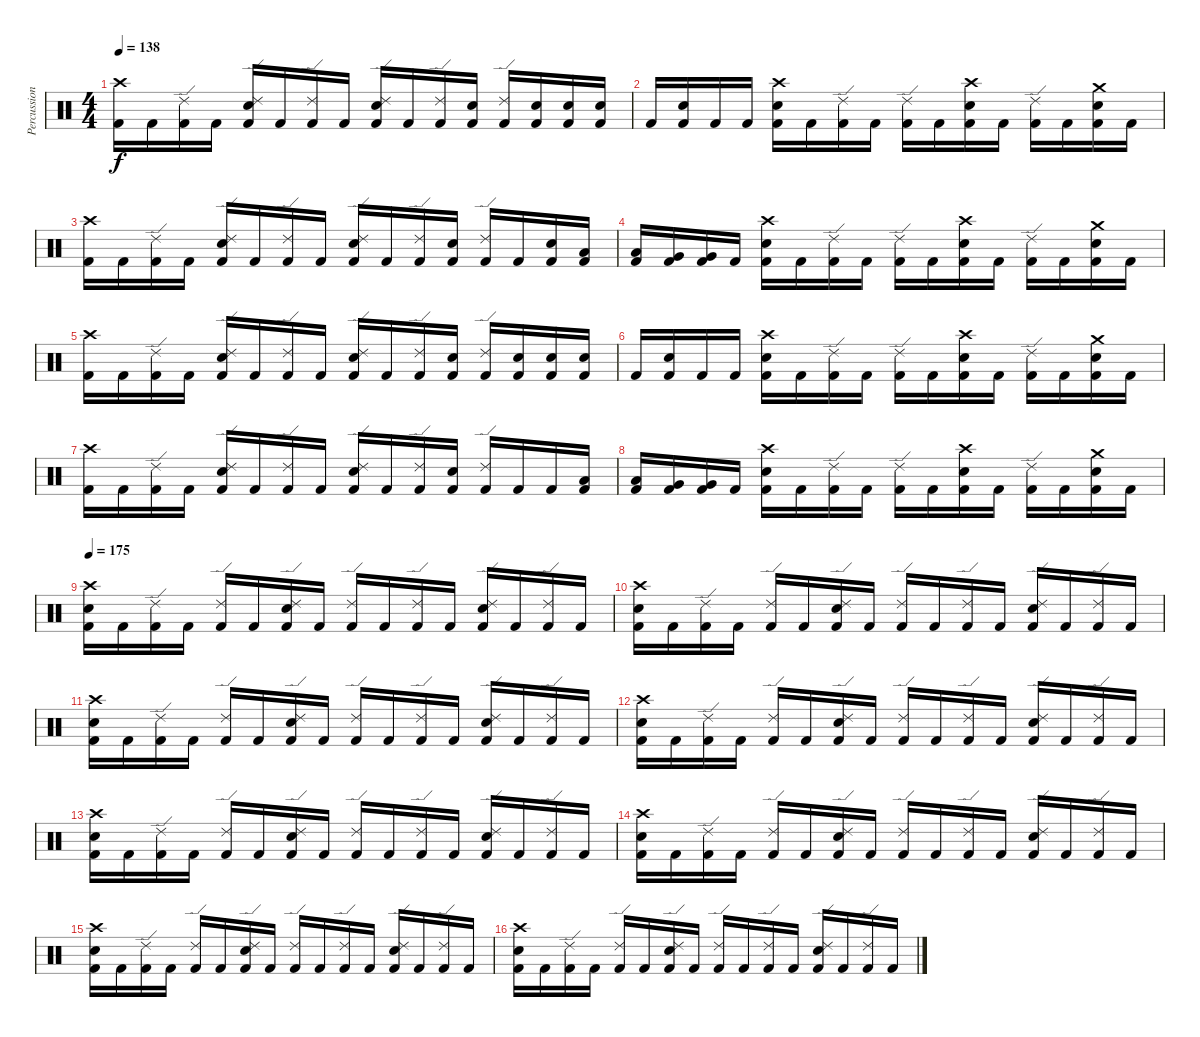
\track ("Percussion" "Percussion") {instrument percussion}
\staff {score}
\articulation defaults
\ts (4 4)
\tempo 138
\clef neutral
\ks c
("Crash high (hit)" "Kick (hit) 2").16{dy f} "Kick (hit) 2".16 ("Ride (edge) 2" "Kick (hit) 2").16 "Kick (hit) 2".16 ("Ride (edge) 2" "Snare (hit) 2" "Kick (hit) 2").16 "Kick (hit) 2".16 ("Ride (edge) 2" "Kick (hit) 2").16 "Kick (hit) 2".16 ("Ride (edge) 2" "Snare (hit) 2" "Kick (hit) 2").16 "Kick (hit) 2".16 ("Ride (edge) 2" "Kick (hit) 2").16 ("Snare (hit) 2" "Kick (hit) 2").16 ("Ride (edge) 2" "Kick (hit) 2").16 ("Snare (hit) 2" "Kick (hit) 2").16 ("Snare (hit) 2" "Kick (hit) 2").16 ("Snare (hit) 2" "Kick (hit) 2").16 |
"Kick (hit) 2".16 ("Snare (hit) 2" "Kick (hit) 2").16 "Kick (hit) 2".16 "Kick (hit) 2".16 ("Crash high (hit)" "Snare (hit) 2" "Kick (hit) 2").16 "Kick (hit) 2".16 ("Ride (edge) 2" "Kick (hit) 2").16 "Kick (hit) 2".16 ("Ride (edge) 2" "Kick (hit) 2").16 "Kick (hit) 2".16 ("Crash high (hit)" "Snare (hit) 2" "Kick (hit) 2").16 "Kick (hit) 2".16 ("Ride (edge) 2" "Kick (hit) 2").16 "Kick (hit) 2".16 ("Crash medium (hit)" "Snare (hit) 2" "Kick (hit) 2").16 "Kick (hit) 2".16 |
("Crash high (hit)" "Kick (hit) 2").16 "Kick (hit) 2".16 ("Ride (edge) 2" "Kick (hit) 2").16 "Kick (hit) 2".16 ("Ride (edge) 2" "Snare (hit) 2" "Kick (hit) 2").16 "Kick (hit) 2".16 ("Ride (edge) 2" "Kick (hit) 2").16 "Kick (hit) 2".16 ("Ride (edge) 2" "Snare (hit) 2" "Kick (hit) 2").16 "Kick (hit) 2".16 ("Ride (edge) 2" "Kick (hit) 2").16 ("Snare (hit) 2" "Kick (hit) 2").16 ("Ride (edge) 2" "Kick (hit) 2").16 "Kick (hit) 2".16 ("Snare (hit) 2" "Kick (hit) 2").16 ("Low Tom (hit)" "Kick (hit) 2").16 |
("Low Tom (hit)" "Kick (hit) 2").16 ("Very Low Tom (hit)" "Kick (hit) 2").16 ("Very Low Tom (hit)" "Kick (hit) 2").16 "Kick (hit) 2".16 ("Crash high (hit)" "Snare (hit) 2" "Kick (hit) 2").16 "Kick (hit) 2".16 ("Ride (edge) 2" "Kick (hit) 2").16 "Kick (hit) 2".16 ("Ride (edge) 2" "Kick (hit) 2").16 "Kick (hit) 2".16 ("Crash high (hit)" "Snare (hit) 2" "Kick (hit) 2").16 "Kick (hit) 2".16 ("Ride (edge) 2" "Kick (hit) 2").16 "Kick (hit) 2".16 ("Crash medium (hit)" "Snare (hit) 2" "Kick (hit) 2").16 "Kick (hit) 2".16 |
("Crash high (hit)" "Kick (hit) 2").16 "Kick (hit) 2".16 ("Ride (edge) 2" "Kick (hit) 2").16 "Kick (hit) 2".16 ("Ride (edge) 2" "Snare (hit) 2" "Kick (hit) 2").16 "Kick (hit) 2".16 ("Ride (edge) 2" "Kick (hit) 2").16 "Kick (hit) 2".16 ("Ride (edge) 2" "Snare (hit) 2" "Kick (hit) 2").16 "Kick (hit) 2".16 ("Ride (edge) 2" "Kick (hit) 2").16 ("Snare (hit) 2" "Kick (hit) 2").16 ("Ride (edge) 2" "Kick (hit) 2").16 ("Snare (hit) 2" "Kick (hit) 2").16 ("Snare (hit) 2" "Kick (hit) 2").16 ("Snare (hit) 2" "Kick (hit) 2").16 |
"Kick (hit) 2".16 ("Snare (hit) 2" "Kick (hit) 2").16 "Kick (hit) 2".16 "Kick (hit) 2".16 ("Crash high (hit)" "Snare (hit) 2" "Kick (hit) 2").16 "Kick (hit) 2".16 ("Ride (edge) 2" "Kick (hit) 2").16 "Kick (hit) 2".16 ("Ride (edge) 2" "Kick (hit) 2").16 "Kick (hit) 2".16 ("Crash high (hit)" "Snare (hit) 2" "Kick (hit) 2").16 "Kick (hit) 2".16 ("Ride (edge) 2" "Kick (hit) 2").16 "Kick (hit) 2".16 ("Crash medium (hit)" "Snare (hit) 2" "Kick (hit) 2").16 "Kick (hit) 2".16 |
("Crash high (hit)" "Kick (hit) 2").16 "Kick (hit) 2".16 ("Ride (edge) 2" "Kick (hit) 2").16 "Kick (hit) 2".16 ("Ride (edge) 2" "Snare (hit) 2" "Kick (hit) 2").16 "Kick (hit) 2".16 ("Ride (edge) 2" "Kick (hit) 2").16 "Kick (hit) 2".16 ("Ride (edge) 2" "Snare (hit) 2" "Kick (hit) 2").16 "Kick (hit) 2".16 ("Ride (edge) 2" "Kick (hit) 2").16 ("Snare (hit) 2" "Kick (hit) 2").16 ("Ride (edge) 2" "Kick (hit) 2").16 "Kick (hit) 2".16 "Kick (hit) 2".16 ("Low Tom (hit)" "Kick (hit) 2").16 |
("Low Tom (hit)" "Kick (hit) 2").16 ("Very Low Tom (hit)" "Kick (hit) 2").16 ("Very Low Tom (hit)" "Kick (hit) 2").16 "Kick (hit) 2".16 ("Crash high (hit)" "Snare (hit) 2" "Kick (hit) 2").16 "Kick (hit) 2".16 ("Ride (edge) 2" "Kick (hit) 2").16 "Kick (hit) 2".16 ("Ride (edge) 2" "Kick (hit) 2").16 "Kick (hit) 2".16 ("Crash high (hit)" "Snare (hit) 2" "Kick (hit) 2").16 "Kick (hit) 2".16 ("Ride (edge) 2" "Kick (hit) 2").16 "Kick (hit) 2".16 ("Crash medium (hit)" "Snare (hit) 2" "Kick (hit) 2").16 "Kick (hit) 2".16 |
\tempo 175
("Crash high (hit)" "Snare (hit) 2" "Kick (hit) 2").16 "Kick (hit) 2".16 ("Ride (edge) 2" "Kick (hit) 2").16 "Kick (hit) 2".16 ("Ride (edge) 2" "Kick (hit) 2").16 "Kick (hit) 2".16 ("Ride (edge) 2" "Snare (hit) 2" "Kick (hit) 2").16 "Kick (hit) 2".16 ("Ride (edge) 2" "Kick (hit) 2").16 "Kick (hit) 2".16 ("Ride (edge) 2" "Kick (hit) 2").16 "Kick (hit) 2".16 ("Ride (edge) 2" "Snare (hit) 2" "Kick (hit) 2").16 "Kick (hit) 2".16 ("Ride (edge) 2" "Kick (hit) 2").16 "Kick (hit) 2".16 |
("Crash high (hit)" "Snare (hit) 2" "Kick (hit) 2").16 "Kick (hit) 2".16 ("Ride (edge) 2" "Kick (hit) 2").16 "Kick (hit) 2".16 ("Ride (edge) 2" "Kick (hit) 2").16 "Kick (hit) 2".16 ("Ride (edge) 2" "Snare (hit) 2" "Kick (hit) 2").16 "Kick (hit) 2".16 ("Ride (edge) 2" "Kick (hit) 2").16 "Kick (hit) 2".16 ("Ride (edge) 2" "Kick (hit) 2").16 "Kick (hit) 2".16 ("Ride (edge) 2" "Snare (hit) 2" "Kick (hit) 2").16 "Kick (hit) 2".16 ("Ride (edge) 2" "Kick (hit) 2").16 "Kick (hit) 2".16 |
("Crash high (hit)" "Snare (hit) 2" "Kick (hit) 2").16 "Kick (hit) 2".16 ("Ride (edge) 2" "Kick (hit) 2").16 "Kick (hit) 2".16 ("Ride (edge) 2" "Kick (hit) 2").16 "Kick (hit) 2".16 ("Ride (edge) 2" "Snare (hit) 2" "Kick (hit) 2").16 "Kick (hit) 2".16 ("Ride (edge) 2" "Kick (hit) 2").16 "Kick (hit) 2".16 ("Ride (edge) 2" "Kick (hit) 2").16 "Kick (hit) 2".16 ("Ride (edge) 2" "Snare (hit) 2" "Kick (hit) 2").16 "Kick (hit) 2".16 ("Ride (edge) 2" "Kick (hit) 2").16 "Kick (hit) 2".16 |
("Crash high (hit)" "Snare (hit) 2" "Kick (hit) 2").16 "Kick (hit) 2".16 ("Ride (edge) 2" "Kick (hit) 2").16 "Kick (hit) 2".16 ("Ride (edge) 2" "Kick (hit) 2").16 "Kick (hit) 2".16 ("Ride (edge) 2" "Snare (hit) 2" "Kick (hit) 2").16 "Kick (hit) 2".16 ("Ride (edge) 2" "Kick (hit) 2").16 "Kick (hit) 2".16 ("Ride (edge) 2" "Kick (hit) 2").16 "Kick (hit) 2".16 ("Ride (edge) 2" "Snare (hit) 2" "Kick (hit) 2").16 "Kick (hit) 2".16 ("Ride (edge) 2" "Kick (hit) 2").16 "Kick (hit) 2".16 |
("Crash high (hit)" "Snare (hit) 2" "Kick (hit) 2").16 "Kick (hit) 2".16 ("Ride (edge) 2" "Kick (hit) 2").16 "Kick (hit) 2".16 ("Ride (edge) 2" "Kick (hit) 2").16 "Kick (hit) 2".16 ("Ride (edge) 2" "Snare (hit) 2" "Kick (hit) 2").16 "Kick (hit) 2".16 ("Ride (edge) 2" "Kick (hit) 2").16 "Kick (hit) 2".16 ("Ride (edge) 2" "Kick (hit) 2").16 "Kick (hit) 2".16 ("Ride (edge) 2" "Snare (hit) 2" "Kick (hit) 2").16 "Kick (hit) 2".16 ("Ride (edge) 2" "Kick (hit) 2").16 "Kick (hit) 2".16 |
("Crash high (hit)" "Snare (hit) 2" "Kick (hit) 2").16 "Kick (hit) 2".16 ("Ride (edge) 2" "Kick (hit) 2").16 "Kick (hit) 2".16 ("Ride (edge) 2" "Kick (hit) 2").16 "Kick (hit) 2".16 ("Ride (edge) 2" "Snare (hit) 2" "Kick (hit) 2").16 "Kick (hit) 2".16 ("Ride (edge) 2" "Kick (hit) 2").16 "Kick (hit) 2".16 ("Ride (edge) 2" "Kick (hit) 2").16 "Kick (hit) 2".16 ("Ride (edge) 2" "Snare (hit) 2" "Kick (hit) 2").16 "Kick (hit) 2".16 ("Ride (edge) 2" "Kick (hit) 2").16 "Kick (hit) 2".16 |
("Crash high (hit)" "Snare (hit) 2" "Kick (hit) 2").16 "Kick (hit) 2".16 ("Ride (edge) 2" "Kick (hit) 2").16 "Kick (hit) 2".16 ("Ride (edge) 2" "Kick (hit) 2").16 "Kick (hit) 2".16 ("Ride (edge) 2" "Snare (hit) 2" "Kick (hit) 2").16 "Kick (hit) 2".16 ("Ride (edge) 2" "Kick (hit) 2").16 "Kick (hit) 2".16 ("Ride (edge) 2" "Kick (hit) 2").16 "Kick (hit) 2".16 ("Ride (edge) 2" "Snare (hit) 2" "Kick (hit) 2").16 "Kick (hit) 2".16 ("Ride (edge) 2" "Kick (hit) 2").16 "Kick (hit) 2".16 |
("Crash high (hit)" "Snare (hit) 2" "Kick (hit) 2").16 "Kick (hit) 2".16 ("Ride (edge) 2" "Kick (hit) 2").16 "Kick (hit) 2".16 ("Ride (edge) 2" "Kick (hit) 2").16 "Kick (hit) 2".16 ("Ride (edge) 2" "Snare (hit) 2" "Kick (hit) 2").16 "Kick (hit) 2".16 ("Ride (edge) 2" "Kick (hit) 2").16 "Kick (hit) 2".16 ("Ride (edge) 2" "Kick (hit) 2").16 "Kick (hit) 2".16 ("Ride (edge) 2" "Snare (hit) 2" "Kick (hit) 2").16 "Kick (hit) 2".16 ("Ride (edge) 2" "Kick (hit) 2").16 "Kick (hit) 2".16
